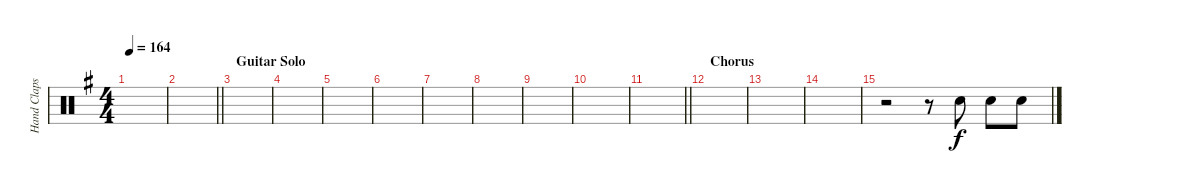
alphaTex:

\track ("Hand Claps" "Hand Claps") {instrument percussion}
\staff {score}
\articulation defaults
\ts (4 4)
\tempo 164
\clef neutral
\ks eminor
|
\barLineRight lightlight
|
\section ("" "Guitar Solo")
|
|
|
|
|
|
|
|
\barLineRight lightlight
|
\section ("" "Chorus")
|
|
|
r.2 r.8 "Hand Clap (hit)".8 "Hand Clap (hit)".8 "Hand Clap (hit)".8
